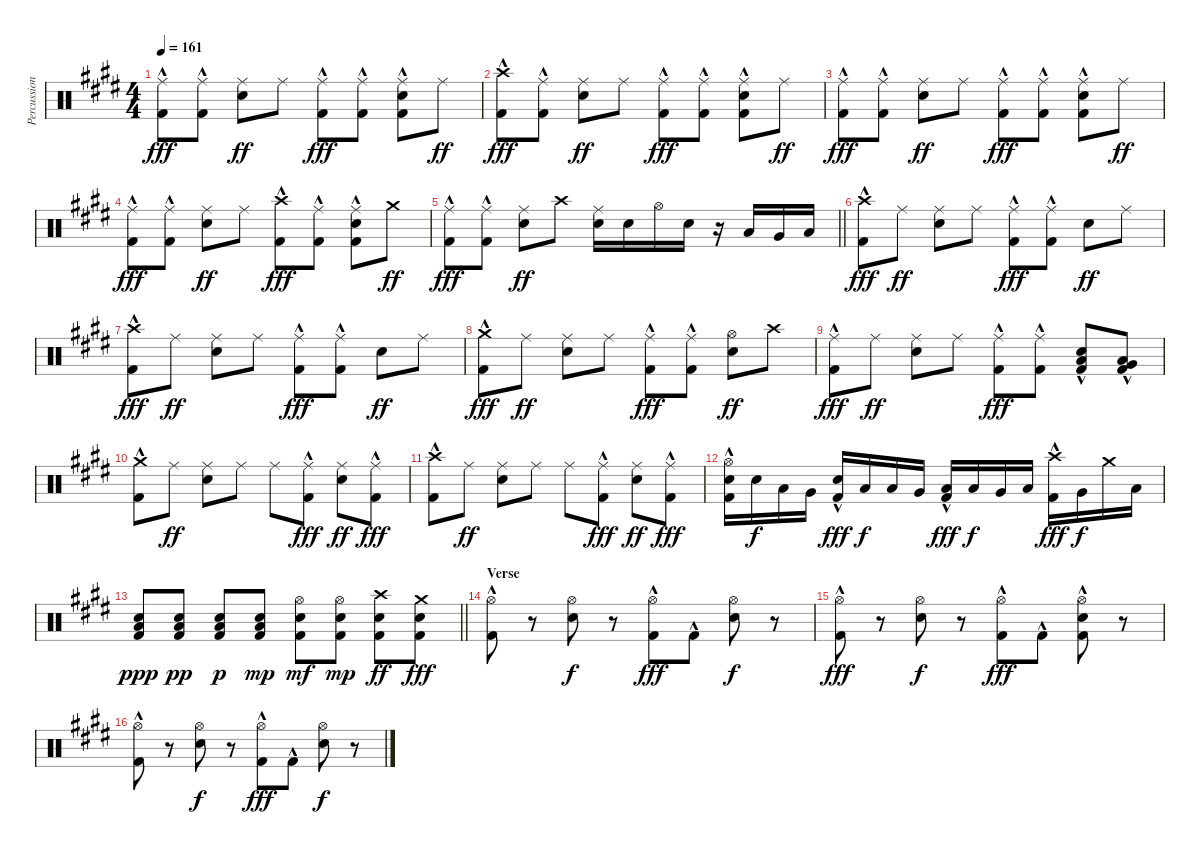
\track ("Percussion" "Percussion") {instrument percussion}
\staff
\articulation defaults
\ts (4 4)
\tempo 161
\clef neutral
\ks e
("Ride (middle)" "Kick (hit) 2"{hac}).8{dy fff} ("Ride (middle)" "Kick (hit) 2"{hac}).8 ("Ride (middle)" "Snare (hit) 2").8{dy ff} "Ride (middle)".8 ("Ride (middle)" "Kick (hit) 2"{hac}).8{dy fff} ("Ride (middle)" "Kick (hit) 2"{hac}).8 ("Ride (middle)" "Snare (hit) 2" "Kick (hit) 2"{hac}).8 "Ride (middle)".8{dy ff} |
("Crash high (hit)" "Kick (hit) 2"{hac}).8{dy fff} ("Ride (middle)" "Kick (hit) 2"{hac}).8 ("Ride (middle)" "Snare (hit) 2").8{dy ff} "Ride (middle)".8 ("Ride (middle)" "Kick (hit) 2"{hac}).8{dy fff} ("Ride (middle)" "Kick (hit) 2"{hac}).8 ("Ride (middle)" "Snare (hit) 2" "Kick (hit) 2"{hac}).8 "Ride (middle)".8{dy ff} |
("Ride (middle)" "Kick (hit) 2"{hac}).8{dy fff} ("Ride (middle)" "Kick (hit) 2"{hac}).8 ("Ride (middle)" "Snare (hit) 2").8{dy ff} "Ride (middle)".8 ("Ride (middle)" "Kick (hit) 2"{hac}).8{dy fff} ("Ride (middle)" "Kick (hit) 2"{hac}).8 ("Ride (middle)" "Snare (hit) 2" "Kick (hit) 2"{hac}).8 "Ride (middle)".8{dy ff} |
("Ride (middle)" "Kick (hit) 2"{hac}).8{dy fff} ("Ride (middle)" "Kick (hit) 2"{hac}).8 ("Ride (middle)" "Snare (hit) 2").8{dy ff} "Ride (middle)".8 ("Crash high (hit)" "Kick (hit) 2"{hac}).8{dy fff} ("Ride (middle)" "Kick (hit) 2"{hac}).8 ("Ride (middle)" "Snare (hit) 2" "Kick (hit) 2"{hac}).8 "Crash medium (hit)".8{dy ff} |
\barLineRight lightlight
("Ride (middle)" "Kick (hit) 2"{hac}).8{dy fff} ("Ride (middle)" "Kick (hit) 2"{hac}).8 ("Ride (middle)" "Snare (hit) 2").8{dy ff} "Crash high (hit)".8 ("Ride (middle)" "Snare (hit) 2").16 "Snare (hit) 2".16 "Hi-Hat (open)".16 "Snare (hit) 2".16 r.16 "Low Tom (hit)".16 "Very Low Tom (hit)".16 "Low Floor Tom (hit)".16 |
("Crash high (hit)" "Kick (hit) 2"{hac}).8{dy fff} "Ride (middle)".8{dy ff} ("Ride (middle)" "Snare (hit) 2").8 "Ride (middle)".8 ("Ride (middle)" "Kick (hit) 2"{hac}).8{dy fff} ("Ride (middle)" "Kick (hit) 2"{hac}).8 "Snare (hit) 2".8{dy ff} "Ride (middle)".8 |
("Crash high (hit)" "Kick (hit) 2"{hac}).8{dy fff} "Ride (middle)".8{dy ff} ("Ride (middle)" "Snare (hit) 2").8 "Ride (middle)".8 ("Ride (middle)" "Kick (hit) 2"{hac}).8{dy fff} ("Ride (middle)" "Kick (hit) 2"{hac}).8 "Snare (hit) 2".8{dy ff} "Ride (middle)".8 |
("Crash medium (hit)" "Kick (hit) 2"{hac}).8{dy fff} "Ride (middle)".8{dy ff} ("Ride (middle)" "Snare (hit) 2").8 "Ride (middle)".8 ("Ride (middle)" "Kick (hit) 2"{hac}).8{dy fff} ("Ride (middle)" "Kick (hit) 2"{hac}).8 ("Hi-Hat (open)" "Snare (hit) 2").8{dy ff} "Crash high (hit)".8 |
("Ride (middle)" "Kick (hit) 2"{hac}).8{dy fff} "Ride (middle)".8{dy ff} ("Ride (middle)" "Snare (hit) 2").8 "Ride (middle)".8 ("Ride (middle)" "Kick (hit) 2"{hac}).8{dy fff} ("Ride (middle)" "Kick (hit) 2"{hac}).8 ("Snare (hit) 2" "Low Tom (hit)" "Kick (hit) 2"{hac}).8 ("Low Tom (hit)" "Very Low Tom (hit)" "Kick (hit) 2"{hac}).8 |
("Crash medium (hit)" "Kick (hit) 2"{hac}).8 "Ride (middle)".8{dy ff} ("Ride (middle)" "Snare (hit) 2").8 "Ride (middle)".8 "Ride (middle)".8 ("Ride (middle)" "Kick (hit) 2"{hac}).8{dy fff} ("Ride (middle)" "Snare (hit) 2").8{dy ff} ("Ride (middle)" "Kick (hit) 2"{hac}).8{dy fff} |
("Crash high (hit)" "Kick (hit) 2"{hac}).8 "Ride (middle)".8{dy ff} ("Ride (middle)" "Snare (hit) 2").8 "Ride (middle)".8 "Ride (middle)".8 ("Ride (middle)" "Kick (hit) 2"{hac}).8{dy fff} ("Ride (middle)" "Snare (hit) 2").8{dy ff} ("Ride (middle)" "Kick (hit) 2"{hac}).8{dy fff} |
("Hi-Hat (open)" "Snare (hit) 2" "Kick (hit) 2"{hac}).16 "Snare (hit) 2".16{dy f} "Low Tom (hit)".16 "Very Low Tom (hit)".16 ("Snare (hit) 2" "Kick (hit) 2"{hac}).16{dy fff} "Low Tom (hit)".16{dy f} "Low Tom (hit)".16 "Very Low Tom (hit)".16 ("Low Tom (hit)" "Kick (hit) 2"{hac}).16{dy fff} "Low Tom (hit)".16{dy f} "Very Low Tom (hit)".16 "Low Floor Tom (hit)".16 ("Crash high (hit)" "Kick (hit) 2"{hac}).16{dy fff} "Very Low Tom (hit)".16{dy f} "Crash medium (hit)".16 "Low Floor Tom (hit)".16 |
\barLineRight lightlight
("Snare (hit) 2" "Low Tom (hit)" "Kick (hit) 2").8{dy ppp} ("Snare (hit) 2" "Low Tom (hit)" "Kick (hit) 2").8{dy pp} ("Snare (hit) 2" "Low Tom (hit)" "Kick (hit) 2").8{dy p} ("Snare (hit) 2" "Low Tom (hit)" "Kick (hit) 2").8{dy mp} ("Hi-Hat (open)" "Snare (hit) 2" "Kick (hit) 2").8{dy mf} ("Hi-Hat (open)" "Snare (hit) 2" "Kick (hit) 2").8{dy mp} ("Crash high (hit)" "Snare (hit) 2" "Kick (hit) 2").8{dy ff} ("Crash medium (hit)" "Snare (hit) 2" "Kick (hit) 2").8{dy fff} |
\section ("" "Verse")
("Hi-Hat (open)" "Kick (hit) 2"{hac}).8 r.8 ("Hi-Hat (open)" "Snare (hit) 2").8{dy f} r.8 ("Hi-Hat (open)" "Kick (hit) 2"{hac}).8{dy fff} "Kick (hit) 2"{hac}.8 ("Hi-Hat (open)" "Snare (hit) 2").8{dy f} r.8 |
("Hi-Hat (open)" "Kick (hit) 2"{hac}).8{dy fff} r.8 ("Hi-Hat (open)" "Snare (hit) 2").8{dy f} r.8 ("Hi-Hat (open)" "Kick (hit) 2"{hac}).8{dy fff} "Kick (hit) 2"{hac}.8 ("Hi-Hat (open)" "Snare (hit) 2" "Kick (hit) 2"{hac}).8 r.8 |
("Hi-Hat (open)" "Kick (hit) 2"{hac}).8 r.8 ("Hi-Hat (open)" "Snare (hit) 2").8{dy f} r.8 ("Hi-Hat (open)" "Kick (hit) 2"{hac}).8{dy fff} "Kick (hit) 2"{hac}.8 ("Hi-Hat (open)" "Snare (hit) 2").8{dy f} r.8
